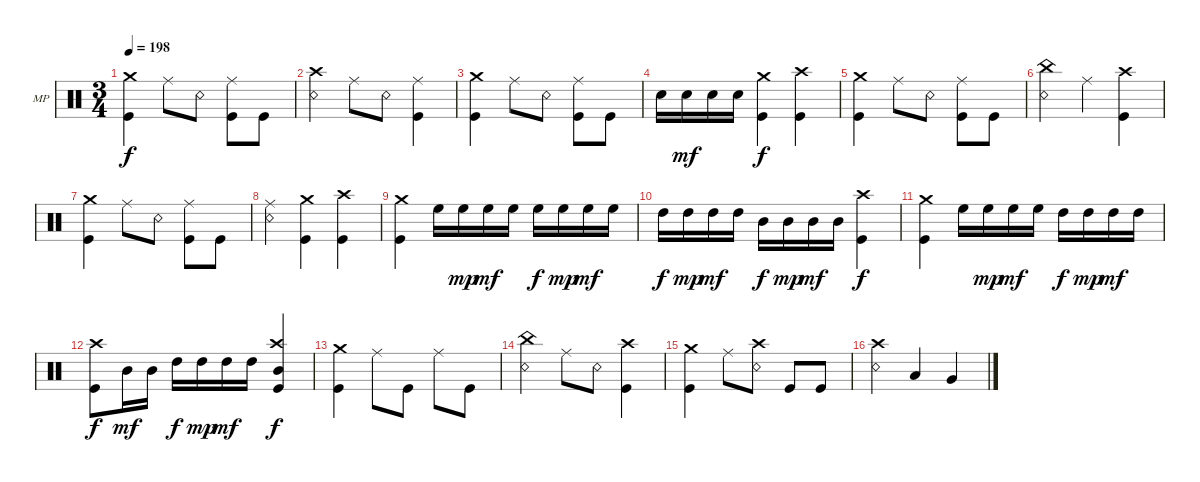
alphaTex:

\defaultSystemsLayout 4
\bracketExtendMode groupsimilarinstruments
\firstSystemTrackNameOrientation horizontal
\otherSystemsTrackNameOrientation horizontal
\track ("Mike Portnoy" "MP") {instrument percussion}
\staff {score}
\articulation defaults
\ts (3 4)
\tempo 198
\clef neutral
\ks c
("Crash medium (hit)" "Kick (hit)").4{dy f} "Ride (middle)".8 "Snare (rim shot)".8 ("Ride (middle)" "Kick (hit)").8 "Kick (hit)".8 |
("Crash high (hit)" "Snare (rim shot)").4 "Ride (middle)".8 "Snare (rim shot)".8 ("Ride (middle)" "Kick (hit)").4 |
("Crash medium (hit)" "Kick (hit)").4 "Ride (middle)".8 "Snare (rim shot)".8 ("Ride (middle)" "Kick (hit)").8 "Kick (hit)".8 |
"Snare (hit) 2".16 "Snare (hit) 2".16{dy mf} "Snare (hit) 2".16 "Snare (hit) 2".16 ("Crash medium (hit)" "Kick (hit)").4{dy f} ("Crash high (hit)" "Kick (hit)").4 |
("Crash medium (hit)" "Kick (hit)").4 "Ride (middle)".8 "Snare (rim shot)".8 ("Ride (middle)" "Kick (hit)").8 "Kick (hit)".8 |
("China (hit)" "Snare (rim shot)").4 "Ride (middle)".4 ("Crash high (hit)" "Kick (hit)").4 |
("Crash medium (hit)" "Kick (hit)").4 "Ride (middle)".8 "Snare (rim shot)".8 ("Ride (middle)" "Kick (hit)").8 "Kick (hit)".8 |
("Ride (middle)" "Snare (rim shot)").4 ("Crash medium (hit)" "Kick (hit)").4 ("Crash high (hit)" "Kick (hit)").4 |
("Crash medium (hit)" "Kick (hit)").4 "High Floor Tom (hit)".16 "High Floor Tom (hit)".16{dy mp} "High Floor Tom (hit)".16{dy mf} "High Floor Tom (hit)".16 "High Floor Tom (hit)".16{dy f} "High Floor Tom (hit)".16{dy mp} "High Floor Tom (hit)".16{dy mf} "High Floor Tom (hit)".16 |
"High Tom (hit)".16{dy f} "High Tom (hit)".16{dy mp} "High Tom (hit)".16{dy mf} "High Tom (hit)".16 "Mid Tom (hit)".16{dy f} "Mid Tom (hit)".16{dy mp} "Mid Tom (hit)".16{dy mf} "Mid Tom (hit)".16 ("Crash high (hit)" "Kick (hit)").4{dy f} |
("Crash medium (hit)" "Kick (hit)").4 "High Floor Tom (hit)".16 "High Floor Tom (hit)".16{dy mp} "High Floor Tom (hit)".16{dy mf} "High Floor Tom (hit)".16 "High Tom (hit)".16{dy f} "High Tom (hit)".16{dy mp} "High Tom (hit)".16{dy mf} "High Tom (hit)".16 |
("Crash high (hit)" "Kick (hit)").8{dy f} "Mid Tom (hit)".16{dy mf} "Mid Tom (hit)".16 "High Tom (hit)".16{dy f} "High Tom (hit)".16{dy mp} "High Tom (hit)".16{dy mf} "High Tom (hit)".16 ("Crash high (hit)" "Mid Tom (hit)" "Kick (hit)").4{dy f} |
("Crash medium (hit)" "Kick (hit)").4 "Ride (middle)".8 "Kick (hit)".8 "Ride (middle)".8 "Kick (hit)".8 |
("China (hit)" "Snare (rim shot)").4 "Ride (middle)".8 "Snare (rim shot)".8 ("Crash high (hit)" "Kick (hit)").4 |
("Crash medium (hit)" "Kick (hit)").4 "Ride (middle)".8 ("Crash high (hit)" "Snare (rim shot)").8 "Kick (hit)".8 "Kick (hit)".8 |
("Crash high (hit)" "Snare (rim shot)").4 "Low Tom (hit)".4 "Very Low Tom (hit)".4
